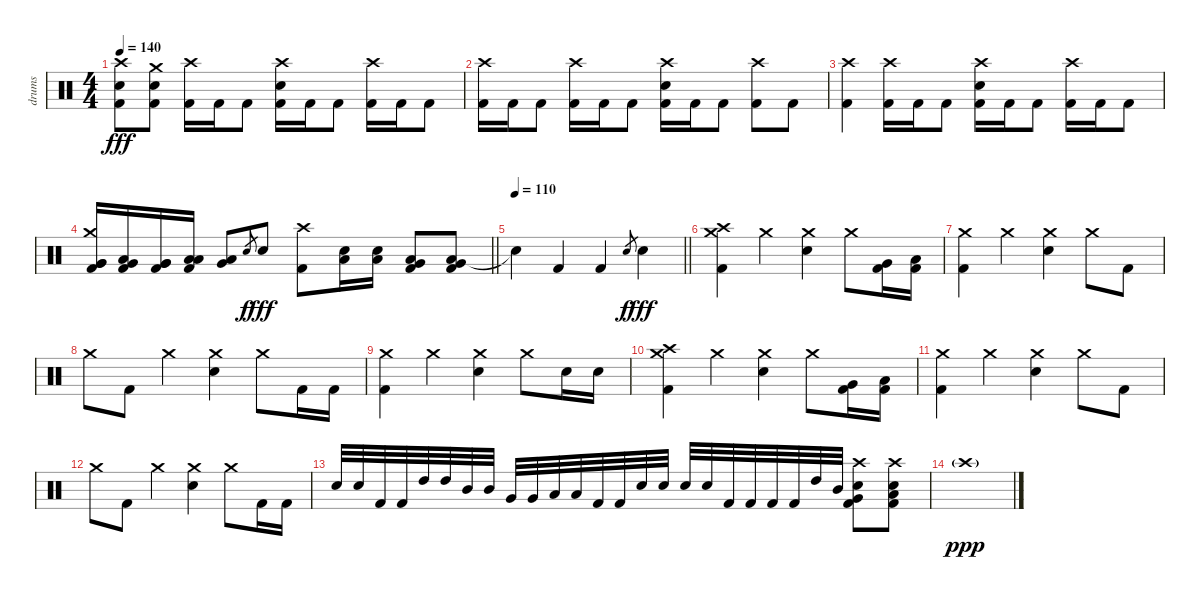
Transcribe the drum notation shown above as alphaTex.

\track ("drums" "drums") {instrument percussion}
\staff {score}
\articulation defaults
\ts (4 4)
\tempo 140
\clef neutral
\ks c
("Crash high (hit)" "Electric Snare (hit)" "Kick (hit) 2").8{dy fff} ("Crash medium (hit)" "Electric Snare (hit)" "Kick (hit) 2").8 ("Crash high (hit)" "Kick (hit) 2").16 "Kick (hit) 2".16 "Kick (hit) 2".8 ("Crash high (hit)" "Electric Snare (hit)" "Kick (hit) 2").16 "Kick (hit) 2".16 "Kick (hit) 2".8 ("Crash high (hit)" "Kick (hit) 2").16 "Kick (hit) 2".16 "Kick (hit) 2".8 |
("Crash high (hit)" "Kick (hit) 2").16 "Kick (hit) 2".16 "Kick (hit) 2".8 ("Crash high (hit)" "Kick (hit) 2").16 "Kick (hit) 2".16 "Kick (hit) 2".8 ("Crash high (hit)" "Electric Snare (hit)" "Kick (hit) 2").16 "Kick (hit) 2".16 "Kick (hit) 2".8 ("Crash high (hit)" "Kick (hit) 2").8 "Kick (hit) 2".8 |
("Crash high (hit)" "Kick (hit) 2").4 ("Crash high (hit)" "Kick (hit) 2").16 "Kick (hit) 2".16 "Kick (hit) 2".8 ("Crash high (hit)" "Electric Snare (hit)" "Kick (hit) 2").16 "Kick (hit) 2".16 "Kick (hit) 2".8 ("Crash high (hit)" "Kick (hit) 2").16 "Kick (hit) 2".16 "Kick (hit) 2".8 |
\barLineRight lightlight
("Crash medium (hit)" "Very Low Tom (hit)" "Very Low Tom (hit)" "Kick (hit) 2").16 ("Low Floor Tom (hit)" "Very Low Tom (hit)" "Kick (hit) 2").16 ("Very Low Tom (hit)" "Very Low Tom (hit)" "Kick (hit) 2").16 ("Low Floor Tom (hit)" "Low Floor Tom (hit)" "Kick (hit) 2").16 ("Very Low Tom (hit)" "Low Floor Tom (hit)").8 "Electric Snare (hit)".8{gr dy f} "Electric Snare (hit)".8{dy fff} ("Crash high (hit)" "Kick (hit) 2").8 ("Electric Snare (hit)" "Low Floor Tom (hit)").16 ("Electric Snare (hit)" "Low Floor Tom (hit)").16 ("Very Low Tom (hit)" "Low Floor Tom (hit)" "Kick (hit) 2").8 ("Low Floor Tom (hit)" "Very Low Tom (hit)" "Kick (hit) 2").8 |
\tempo 110
\barLineRight lightlight "Snare (hit)"{t}.4 "Kick (hit) 2".4 "Kick (hit) 2".4 "Electric Snare (hit)".8{gr dy f} "Electric Snare (hit)".4{dy fff}
|
\section ("" "")
("Crash medium (hit)" "Crash high (hit)" "Kick (hit) 2").4 "Crash medium (hit)".4 ("Crash medium (hit)" "Electric Snare (hit)").4 "Crash medium (hit)".8 ("Very Low Tom (hit)" "Kick (hit) 2").16 ("Low Floor Tom (hit)" "Kick (hit) 2").16 |
("Crash medium (hit)" "Kick (hit) 2").4 "Crash medium (hit)".4 ("Crash medium (hit)" "Electric Snare (hit)").4 "Crash medium (hit)".8 "Kick (hit) 2".8 |
"Crash medium (hit)".8 "Kick (hit) 2".8 "Crash medium (hit)".4 ("Crash medium (hit)" "Electric Snare (hit)").4 "Crash medium (hit)".8 "Kick (hit) 2".16 "Kick (hit) 2".16 |
("Crash medium (hit)" "Kick (hit) 2").4 "Crash medium (hit)".4 ("Crash medium (hit)" "Electric Snare (hit)").4 "Crash medium (hit)".8 "Electric Snare (hit)".16 "Electric Snare (hit)".16 |
("Crash medium (hit)" "Crash high (hit)" "Kick (hit) 2").4 "Crash medium (hit)".4 ("Crash medium (hit)" "Electric Snare (hit)").4 "Crash medium (hit)".8 ("Very Low Tom (hit)" "Kick (hit) 2").16 ("Low Floor Tom (hit)" "Kick (hit) 2").16 |
("Crash medium (hit)" "Kick (hit) 2").4 "Crash medium (hit)".4 ("Crash medium (hit)" "Electric Snare (hit)").4 "Crash medium (hit)".8 "Kick (hit) 2".8 |
"Crash medium (hit)".8 "Kick (hit) 2".8 "Crash medium (hit)".4 ("Crash medium (hit)" "Electric Snare (hit)").4 "Crash medium (hit)".8 "Kick (hit) 2".16 "Kick (hit) 2".16 |
"Electric Snare (hit)".32 "Electric Snare (hit)".32 "Kick (hit) 2".32 "Kick (hit) 2".32 "High Tom (hit)".32 "High Tom (hit)".32 "Mid Tom (hit)".32 "Mid Tom (hit)".32 "Very Low Tom (hit)".32 "Very Low Tom (hit)".32 "Low Floor Tom (hit)".32 "Low Floor Tom (hit)".32 "Kick (hit) 2".32 "Kick (hit) 2".32 "Electric Snare (hit)".32 "Electric Snare (hit)".32 "Electric Snare (hit)".32 "Electric Snare (hit)".32 "Kick (hit) 2".32 "Kick (hit) 2".32 "Kick (hit) 2".32 "Kick (hit) 2".32 "High Tom (hit)".32 "Mid Tom (hit)".32 ("Crash high (hit)" "Very Low Tom (hit)" "Electric Snare (hit)" "Kick (hit) 2").8 ("Crash high (hit)" "Low Floor Tom (hit)" "Electric Snare (hit)" "Kick (hit) 2").8 |
"Crash high (hit)"{g}.1{dy ppp}
